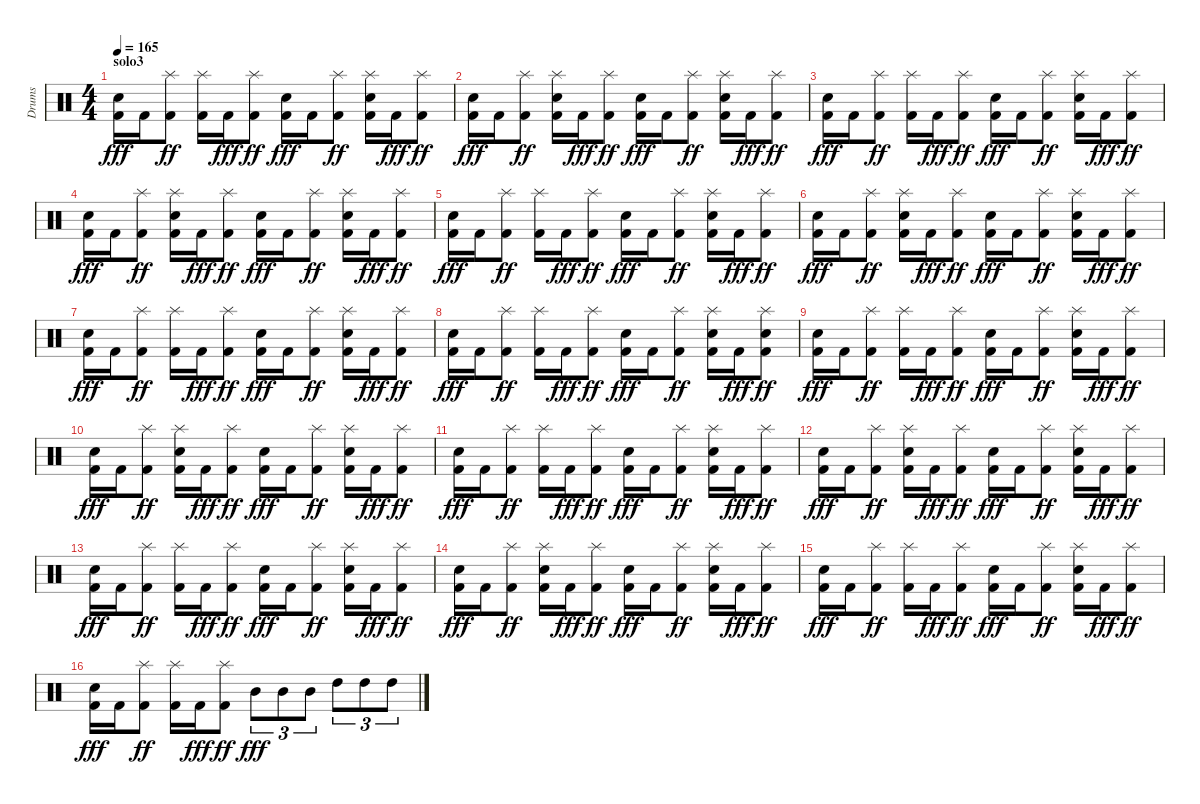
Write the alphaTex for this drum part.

\track ("Drums" "Drums") {instrument percussion}
\staff {score}
\articulation defaults
\ts (4 4)
\section ("" "solo3")
\tempo 165
\clef neutral
\ks c
("Kick (hit) 2" "Snare (hit) 2").16{dy fff} "Kick (hit) 2".16 ("Kick (hit) 2" "Splash (hit)").8{dy ff} ("Kick (hit) 2" "Splash (hit)").16 "Kick (hit) 2".16{dy fff} ("Kick (hit) 2" "Splash (hit)").8{dy ff} ("Kick (hit) 2" "Snare (hit) 2").16{dy fff} "Kick (hit) 2".16 ("Kick (hit) 2" "Splash (hit)").8{dy ff} ("Kick (hit) 2" "Snare (hit) 2" "Splash (hit)").16 "Kick (hit) 2".16{dy fff} ("Kick (hit) 2" "Splash (hit)").8{dy ff} |
("Kick (hit) 2" "Snare (hit) 2").16{dy fff} "Kick (hit) 2".16 ("Kick (hit) 2" "Splash (hit)").8{dy ff} ("Kick (hit) 2" "Snare (hit) 2" "Splash (hit)").16 "Kick (hit) 2".16{dy fff} ("Kick (hit) 2" "Splash (hit)").8{dy ff} ("Kick (hit) 2" "Snare (hit) 2").16{dy fff} "Kick (hit) 2".16 ("Kick (hit) 2" "Splash (hit)").8{dy ff} ("Kick (hit) 2" "Snare (hit) 2" "Splash (hit)").16 "Kick (hit) 2".16{dy fff} ("Kick (hit) 2" "Splash (hit)").8{dy ff} |
("Kick (hit) 2" "Snare (hit) 2").16{dy fff} "Kick (hit) 2".16 ("Kick (hit) 2" "Splash (hit)").8{dy ff} ("Kick (hit) 2" "Splash (hit)").16 "Kick (hit) 2".16{dy fff} ("Kick (hit) 2" "Splash (hit)").8{dy ff} ("Kick (hit) 2" "Snare (hit) 2").16{dy fff} "Kick (hit) 2".16 ("Kick (hit) 2" "Splash (hit)").8{dy ff} ("Kick (hit) 2" "Snare (hit) 2" "Splash (hit)").16 "Kick (hit) 2".16{dy fff} ("Kick (hit) 2" "Splash (hit)").8{dy ff} |
("Kick (hit) 2" "Snare (hit) 2").16{dy fff} "Kick (hit) 2".16 ("Kick (hit) 2" "Splash (hit)").8{dy ff} ("Kick (hit) 2" "Snare (hit) 2" "Splash (hit)").16 "Kick (hit) 2".16{dy fff} ("Kick (hit) 2" "Splash (hit)").8{dy ff} ("Kick (hit) 2" "Snare (hit) 2").16{dy fff} "Kick (hit) 2".16 ("Kick (hit) 2" "Splash (hit)").8{dy ff} ("Kick (hit) 2" "Snare (hit) 2" "Splash (hit)").16 "Kick (hit) 2".16{dy fff} ("Kick (hit) 2" "Splash (hit)").8{dy ff} |
("Kick (hit) 2" "Snare (hit) 2").16{dy fff} "Kick (hit) 2".16 ("Kick (hit) 2" "Splash (hit)").8{dy ff} ("Kick (hit) 2" "Splash (hit)").16 "Kick (hit) 2".16{dy fff} ("Kick (hit) 2" "Splash (hit)").8{dy ff} ("Kick (hit) 2" "Snare (hit) 2").16{dy fff} "Kick (hit) 2".16 ("Kick (hit) 2" "Splash (hit)").8{dy ff} ("Kick (hit) 2" "Snare (hit) 2" "Splash (hit)").16 "Kick (hit) 2".16{dy fff} ("Kick (hit) 2" "Splash (hit)").8{dy ff} |
("Kick (hit) 2" "Snare (hit) 2").16{dy fff} "Kick (hit) 2".16 ("Kick (hit) 2" "Splash (hit)").8{dy ff} ("Kick (hit) 2" "Snare (hit) 2" "Splash (hit)").16 "Kick (hit) 2".16{dy fff} ("Kick (hit) 2" "Splash (hit)").8{dy ff} ("Kick (hit) 2" "Snare (hit) 2").16{dy fff} "Kick (hit) 2".16 ("Kick (hit) 2" "Splash (hit)").8{dy ff} ("Kick (hit) 2" "Snare (hit) 2" "Splash (hit)").16 "Kick (hit) 2".16{dy fff} ("Kick (hit) 2" "Splash (hit)").8{dy ff} |
("Kick (hit) 2" "Snare (hit) 2").16{dy fff} "Kick (hit) 2".16 ("Kick (hit) 2" "Splash (hit)").8{dy ff} ("Kick (hit) 2" "Splash (hit)").16 "Kick (hit) 2".16{dy fff} ("Kick (hit) 2" "Splash (hit)").8{dy ff} ("Kick (hit) 2" "Snare (hit) 2").16{dy fff} "Kick (hit) 2".16 ("Kick (hit) 2" "Splash (hit)").8{dy ff} ("Kick (hit) 2" "Snare (hit) 2" "Splash (hit)").16 "Kick (hit) 2".16{dy fff} ("Kick (hit) 2" "Splash (hit)").8{dy ff} |
("Kick (hit) 2" "Snare (hit) 2").16{dy fff} "Kick (hit) 2".16 ("Kick (hit) 2" "Splash (hit)").8{dy ff} ("Kick (hit) 2" "Splash (hit)").16 "Kick (hit) 2".16{dy fff} ("Kick (hit) 2" "Splash (hit)").8{dy ff} ("Kick (hit) 2" "Snare (hit) 2").16{dy fff} "Kick (hit) 2".16 ("Kick (hit) 2" "Splash (hit)").8{dy ff} ("Kick (hit) 2" "Snare (hit) 2" "Splash (hit)").16 "Kick (hit) 2".16{dy fff} ("Kick (hit) 2" "Snare (hit) 2" "Splash (hit)").8{dy ff} |
("Kick (hit) 2" "Snare (hit) 2").16{dy fff} "Kick (hit) 2".16 ("Kick (hit) 2" "Splash (hit)").8{dy ff} ("Kick (hit) 2" "Splash (hit)").16 "Kick (hit) 2".16{dy fff} ("Kick (hit) 2" "Splash (hit)").8{dy ff} ("Kick (hit) 2" "Snare (hit) 2").16{dy fff} "Kick (hit) 2".16 ("Kick (hit) 2" "Splash (hit)").8{dy ff} ("Kick (hit) 2" "Snare (hit) 2" "Splash (hit)").16 "Kick (hit) 2".16{dy fff} ("Kick (hit) 2" "Splash (hit)").8{dy ff} |
("Kick (hit) 2" "Snare (hit) 2").16{dy fff} "Kick (hit) 2".16 ("Kick (hit) 2" "Splash (hit)").8{dy ff} ("Kick (hit) 2" "Snare (hit) 2" "Splash (hit)").16 "Kick (hit) 2".16{dy fff} ("Kick (hit) 2" "Splash (hit)").8{dy ff} ("Kick (hit) 2" "Snare (hit) 2").16{dy fff} "Kick (hit) 2".16 ("Kick (hit) 2" "Splash (hit)").8{dy ff} ("Kick (hit) 2" "Snare (hit) 2" "Splash (hit)").16 "Kick (hit) 2".16{dy fff} ("Kick (hit) 2" "Splash (hit)").8{dy ff} |
("Kick (hit) 2" "Snare (hit) 2").16{dy fff} "Kick (hit) 2".16 ("Kick (hit) 2" "Splash (hit)").8{dy ff} ("Kick (hit) 2" "Splash (hit)").16 "Kick (hit) 2".16{dy fff} ("Kick (hit) 2" "Splash (hit)").8{dy ff} ("Kick (hit) 2" "Snare (hit) 2").16{dy fff} "Kick (hit) 2".16 ("Kick (hit) 2" "Splash (hit)").8{dy ff} ("Kick (hit) 2" "Snare (hit) 2" "Splash (hit)").16 "Kick (hit) 2".16{dy fff} ("Kick (hit) 2" "Splash (hit)").8{dy ff} |
("Kick (hit) 2" "Snare (hit) 2").16{dy fff} "Kick (hit) 2".16 ("Kick (hit) 2" "Splash (hit)").8{dy ff} ("Kick (hit) 2" "Snare (hit) 2" "Splash (hit)").16 "Kick (hit) 2".16{dy fff} ("Kick (hit) 2" "Splash (hit)").8{dy ff} ("Kick (hit) 2" "Snare (hit) 2").16{dy fff} "Kick (hit) 2".16 ("Kick (hit) 2" "Splash (hit)").8{dy ff} ("Kick (hit) 2" "Snare (hit) 2" "Splash (hit)").16 "Kick (hit) 2".16{dy fff} ("Kick (hit) 2" "Splash (hit)").8{dy ff} |
("Kick (hit) 2" "Snare (hit) 2").16{dy fff} "Kick (hit) 2".16 ("Kick (hit) 2" "Splash (hit)").8{dy ff} ("Kick (hit) 2" "Splash (hit)").16 "Kick (hit) 2".16{dy fff} ("Kick (hit) 2" "Splash (hit)").8{dy ff} ("Kick (hit) 2" "Snare (hit) 2").16{dy fff} "Kick (hit) 2".16 ("Kick (hit) 2" "Splash (hit)").8{dy ff} ("Kick (hit) 2" "Snare (hit) 2" "Splash (hit)").16 "Kick (hit) 2".16{dy fff} ("Kick (hit) 2" "Splash (hit)").8{dy ff} |
("Kick (hit) 2" "Snare (hit) 2").16{dy fff} "Kick (hit) 2".16 ("Kick (hit) 2" "Splash (hit)").8{dy ff} ("Kick (hit) 2" "Snare (hit) 2" "Splash (hit)").16 "Kick (hit) 2".16{dy fff} ("Kick (hit) 2" "Splash (hit)").8{dy ff} ("Kick (hit) 2" "Snare (hit) 2").16{dy fff} "Kick (hit) 2".16 ("Kick (hit) 2" "Splash (hit)").8{dy ff} ("Kick (hit) 2" "Snare (hit) 2" "Splash (hit)").16 "Kick (hit) 2".16{dy fff} ("Kick (hit) 2" "Splash (hit)").8{dy ff} |
("Kick (hit) 2" "Snare (hit) 2").16{dy fff} "Kick (hit) 2".16 ("Kick (hit) 2" "Splash (hit)").8{dy ff} ("Kick (hit) 2" "Splash (hit)").16 "Kick (hit) 2".16{dy fff} ("Kick (hit) 2" "Splash (hit)").8{dy ff} ("Kick (hit) 2" "Snare (hit) 2").16{dy fff} "Kick (hit) 2".16 ("Kick (hit) 2" "Splash (hit)").8{dy ff} ("Kick (hit) 2" "Snare (hit) 2" "Splash (hit)").16 "Kick (hit) 2".16{dy fff} ("Kick (hit) 2" "Splash (hit)").8{dy ff} |
("Kick (hit) 2" "Snare (hit) 2").16{dy fff} "Kick (hit) 2".16 ("Kick (hit) 2" "Splash (hit)").8{dy ff} ("Kick (hit) 2" "Splash (hit)").16 "Kick (hit) 2".16{dy fff} ("Kick (hit) 2" "Splash (hit)").8{dy ff} "Mid Tom (hit)".8{tu (3 2) dy fff} "Mid Tom (hit)".8{tu (3 2)} "Mid Tom (hit)".8{tu (3 2)} "High Tom (hit)".8{tu (3 2)} "High Tom (hit)".8{tu (3 2)} "High Tom (hit)".8{tu (3 2)}
